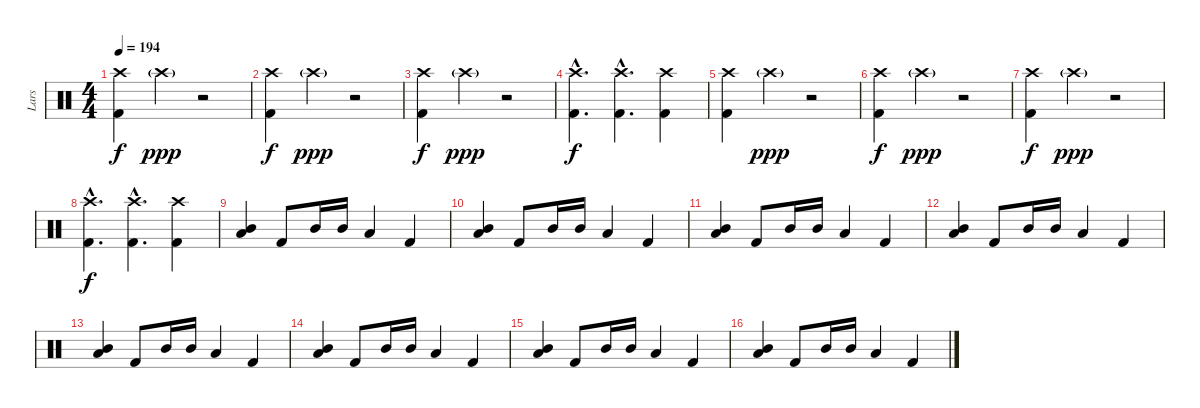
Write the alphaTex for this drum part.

\track ("Lars" "Lars") {instrument percussion}
\staff {score}
\articulation defaults
\ts (4 4)
\tempo 194
\clef neutral
\ks c
("Kick (hit) 2" "Crash high (hit)").4{dy f} "Crash high (hit)"{g}.4{dy ppp} r.2 |
("Kick (hit) 2" "Crash high (hit)").4{dy f} "Crash high (hit)"{g}.4{dy ppp} r.2 |
("Kick (hit) 2" "Crash high (hit)").4{dy f} "Crash high (hit)"{g}.4{dy ppp} r.2 |
("Kick (hit) 2"{hac} "Crash high (hit)"{hac}).4{d dy f} ("Kick (hit) 2"{hac} "Crash high (hit)"{hac}).4{d} ("Kick (hit) 2" "Crash high (hit)").4 |
("Kick (hit) 2" "Crash high (hit)").4 "Crash high (hit)"{g}.4{dy ppp} r.2 |
("Kick (hit) 2" "Crash high (hit)").4{dy f} "Crash high (hit)"{g}.4{dy ppp} r.2 |
("Kick (hit) 2" "Crash high (hit)").4{dy f} "Crash high (hit)"{g}.4{dy ppp} r.2 |
("Kick (hit) 2"{hac} "Crash high (hit)"{hac}).4{d dy f} ("Kick (hit) 2"{hac} "Crash high (hit)"{hac}).4{d} ("Kick (hit) 2" "Crash high (hit)").4 |
("Mid Tom (hit)" "Low Tom (hit)").4{bu 60} "Kick (hit) 2".8 "Mid Tom (hit)".16 "Mid Tom (hit)".16 "Low Tom (hit)".4 "Kick (hit) 2".4 |
("Mid Tom (hit)" "Low Tom (hit)").4{bu 60} "Kick (hit) 2".8 "Mid Tom (hit)".16 "Mid Tom (hit)".16 "Low Tom (hit)".4 "Kick (hit) 2".4 |
("Mid Tom (hit)" "Low Tom (hit)").4{bu 60} "Kick (hit) 2".8 "Mid Tom (hit)".16 "Mid Tom (hit)".16 "Low Tom (hit)".4 "Kick (hit) 2".4 |
("Mid Tom (hit)" "Low Tom (hit)").4{bu 60} "Kick (hit) 2".8 "Mid Tom (hit)".16 "Mid Tom (hit)".16 "Low Tom (hit)".4 "Kick (hit) 2".4 |
("Mid Tom (hit)" "Low Tom (hit)").4{bu 60} "Kick (hit) 2".8 "Mid Tom (hit)".16 "Mid Tom (hit)".16 "Low Tom (hit)".4 "Kick (hit) 2".4 |
("Mid Tom (hit)" "Low Tom (hit)").4{bu 60} "Kick (hit) 2".8 "Mid Tom (hit)".16 "Mid Tom (hit)".16 "Low Tom (hit)".4 "Kick (hit) 2".4 |
("Mid Tom (hit)" "Low Tom (hit)").4{bu 60} "Kick (hit) 2".8 "Mid Tom (hit)".16 "Mid Tom (hit)".16 "Low Tom (hit)".4 "Kick (hit) 2".4 |
("Mid Tom (hit)" "Low Tom (hit)").4{bu 60} "Kick (hit) 2".8 "Mid Tom (hit)".16 "Mid Tom (hit)".16 "Low Tom (hit)".4 "Kick (hit) 2".4
